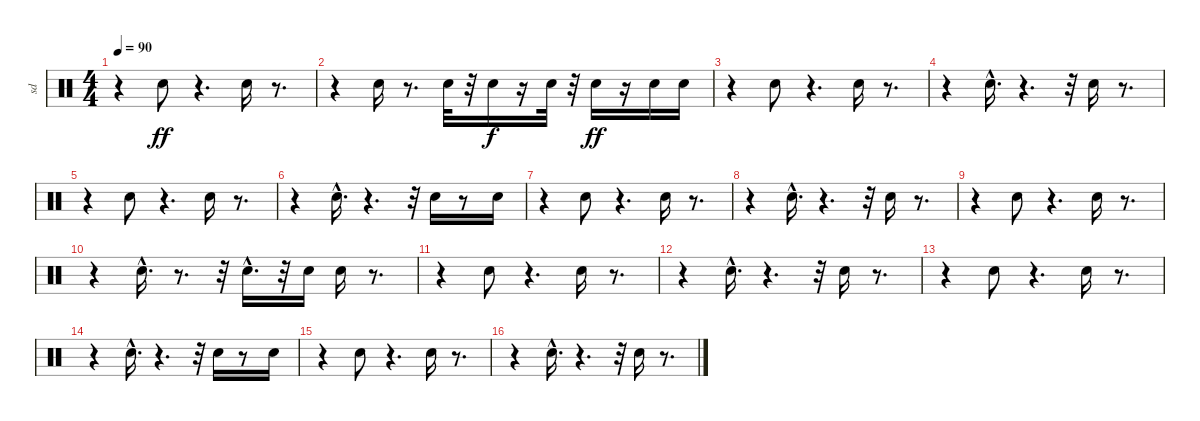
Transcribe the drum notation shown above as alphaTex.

\track ("sd" "sd") {instrument percussion}
\staff {score}
\articulation defaults
\ts (4 4)
\tempo 90
\clef neutral
\ks c
r.4{dy ff} "Snare (hit) 2".8 r.4{d} "Snare (hit) 2".16 r.8{d} |
r.4 "Snare (hit) 2".16 r.8{d} "Snare (hit) 2".32 r.32 "Snare (hit) 2".16{dy f} r.16 "Snare (hit) 2".32 r.32 "Snare (hit) 2".16{dy ff} r.16 "Snare (hit) 2".16 "Snare (hit) 2".16 |
r.4 "Snare (hit) 2".8 r.4{d} "Snare (hit) 2".16 r.8{d} |
r.4 "Snare (hit) 2"{hac}.16{d} r.4{d} r.32 "Snare (hit) 2".16 r.8{d} |
r.4 "Snare (hit) 2".8 r.4{d} "Snare (hit) 2".16 r.8{d} |
r.4 "Snare (hit) 2"{hac}.16{d} r.4{d} r.32 "Snare (hit) 2".16 r.8 "Snare (hit) 2".16 |
r.4 "Snare (hit) 2".8 r.4{d} "Snare (hit) 2".16 r.8{d} |
r.4 "Snare (hit) 2"{hac}.16{d} r.4{d} r.32 "Snare (hit) 2".16 r.8{d} |
r.4 "Snare (hit) 2".8 r.4{d} "Snare (hit) 2".16 r.8{d} |
r.4 "Snare (hit) 2"{hac}.16{d} r.8{d} r.32 "Snare (hit) 2"{hac}.16{d} r.32 "Snare (hit) 2".16 "Snare (hit) 2".16 r.8{d} |
r.4 "Snare (hit) 2".8 r.4{d} "Snare (hit) 2".16 r.8{d} |
r.4 "Snare (hit) 2"{hac}.16{d} r.4{d} r.32 "Snare (hit) 2".16 r.8{d} |
r.4 "Snare (hit) 2".8 r.4{d} "Snare (hit) 2".16 r.8{d} |
r.4 "Snare (hit) 2"{hac}.16{d} r.4{d} r.32 "Snare (hit) 2".16 r.8 "Snare (hit) 2".16 |
r.4 "Snare (hit) 2".8 r.4{d} "Snare (hit) 2".16 r.8{d} |
r.4 "Snare (hit) 2"{hac}.16{d} r.4{d} r.32 "Snare (hit) 2".16 r.8{d}
